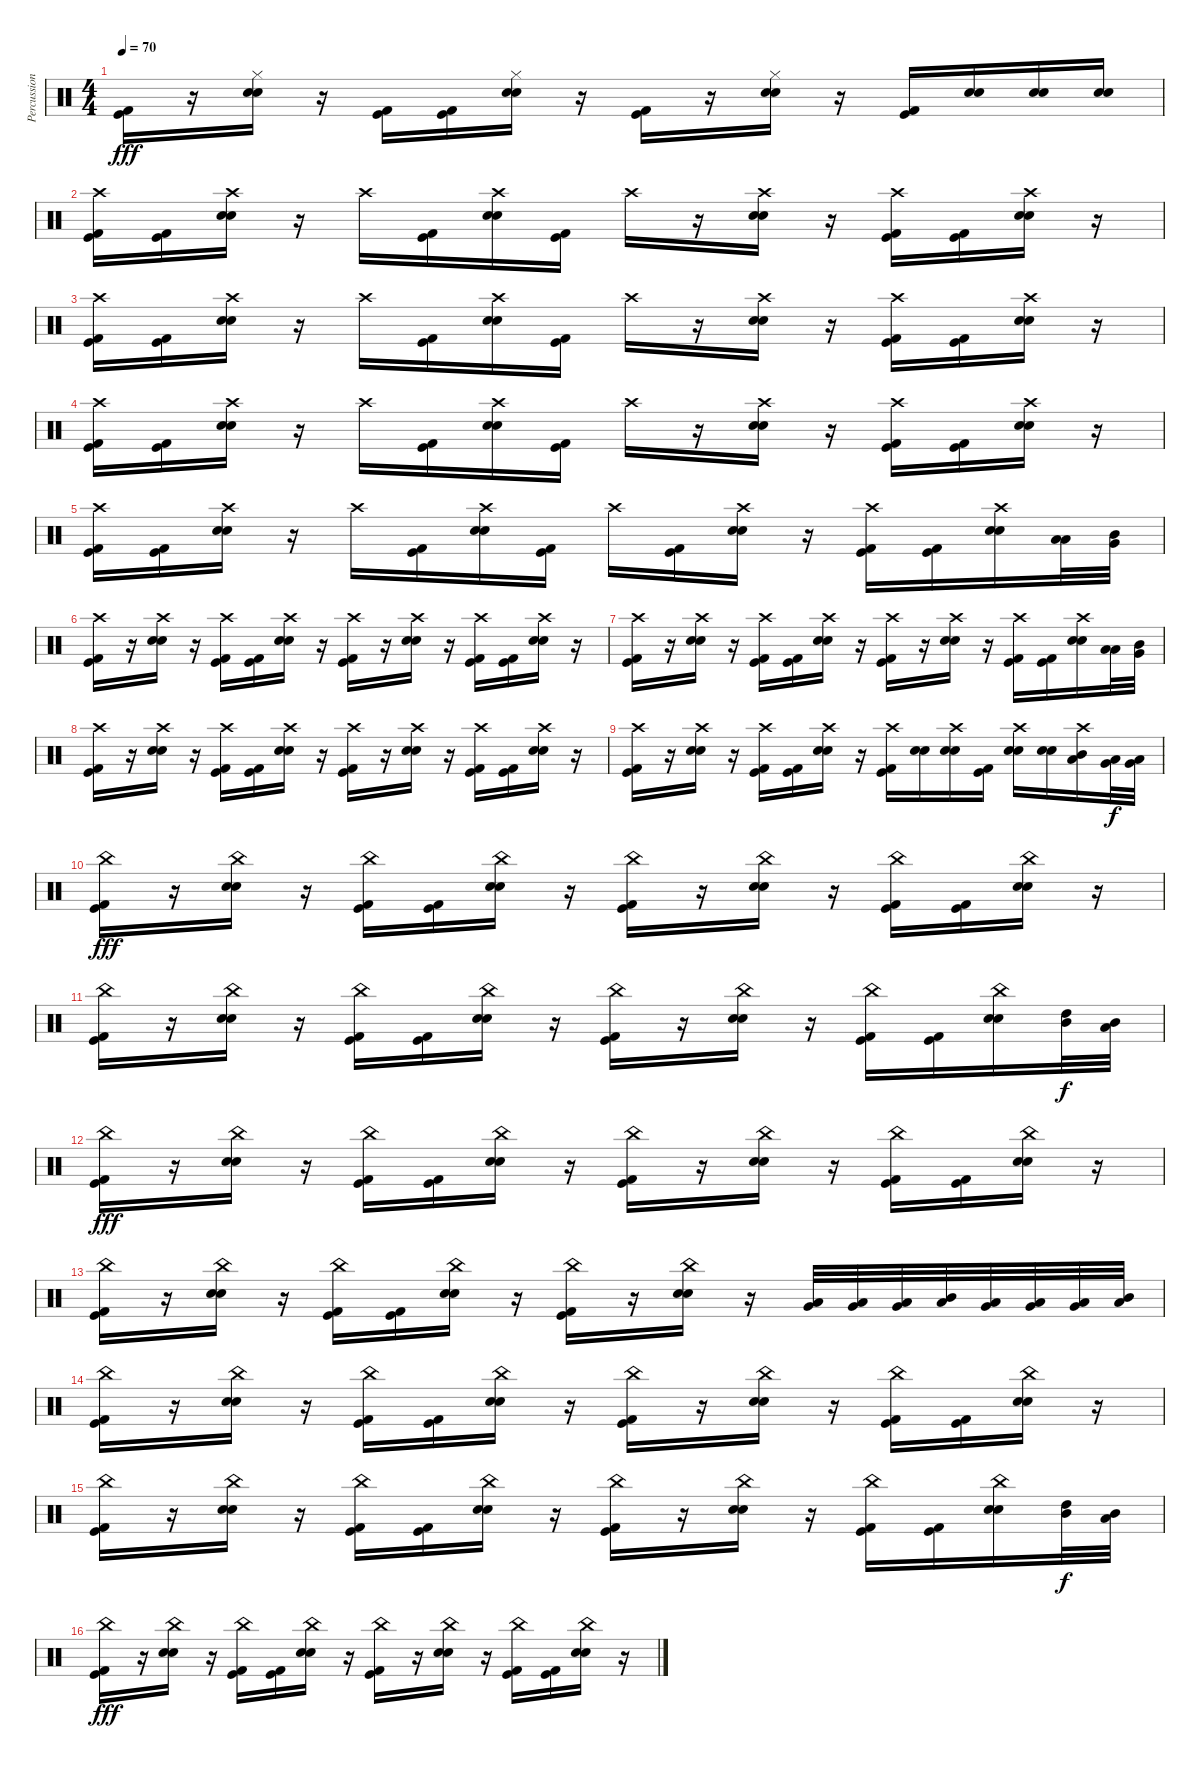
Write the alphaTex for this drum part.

\track ("Percussion" "Percussion") {instrument percussion}
\staff {score}
\articulation defaults
\ts (4 4)
\tempo 70
\clef neutral
\ks c
("Kick (hit)" "Kick (hit) 2").16{dy fff} r.16 ("Hi-Hat (closed)" "Snare (hit) 2" "Electric Snare (hit)").16 r.16 ("Kick (hit)" "Kick (hit) 2").16 ("Kick (hit)" "Kick (hit) 2").16 ("Hi-Hat (closed)" "Snare (hit) 2" "Electric Snare (hit)").16 r.16 ("Kick (hit)" "Kick (hit) 2").16 r.16 ("Hi-Hat (closed)" "Snare (hit) 2" "Electric Snare (hit)").16 r.16 ("Kick (hit)" "Kick (hit) 2").16 ("Snare (hit) 2" "Electric Snare (hit)").16 ("Snare (hit) 2" "Electric Snare (hit)").16 ("Snare (hit) 2" "Electric Snare (hit)").16 |
("Kick (hit)" "Crash high (hit)" "Kick (hit) 2").16 ("Kick (hit)" "Kick (hit) 2").16 ("Crash high (hit)" "Snare (hit) 2" "Electric Snare (hit)").16 r.16 "Crash high (hit)".16 ("Kick (hit)" "Kick (hit) 2").16 ("Crash high (hit)" "Snare (hit) 2" "Electric Snare (hit)").16 ("Kick (hit)" "Kick (hit) 2").16 "Crash high (hit)".16 r.16 ("Crash high (hit)" "Snare (hit) 2" "Electric Snare (hit)").16 r.16 ("Kick (hit)" "Crash high (hit)" "Kick (hit) 2").16 ("Kick (hit)" "Kick (hit) 2").16 ("Crash high (hit)" "Snare (hit) 2" "Electric Snare (hit)").16 r.16 |
("Kick (hit)" "Crash high (hit)" "Kick (hit) 2").16 ("Kick (hit)" "Kick (hit) 2").16 ("Crash high (hit)" "Snare (hit) 2" "Electric Snare (hit)").16 r.16 "Crash high (hit)".16 ("Kick (hit)" "Kick (hit) 2").16 ("Crash high (hit)" "Snare (hit) 2" "Electric Snare (hit)").16 ("Kick (hit)" "Kick (hit) 2").16 "Crash high (hit)".16 r.16 ("Crash high (hit)" "Snare (hit) 2" "Electric Snare (hit)").16 r.16 ("Kick (hit)" "Crash high (hit)" "Kick (hit) 2").16 ("Kick (hit)" "Kick (hit) 2").16 ("Crash high (hit)" "Snare (hit) 2" "Electric Snare (hit)").16 r.16 |
("Kick (hit)" "Crash high (hit)" "Kick (hit) 2").16 ("Kick (hit)" "Kick (hit) 2").16 ("Crash high (hit)" "Snare (hit) 2" "Electric Snare (hit)").16 r.16 "Crash high (hit)".16 ("Kick (hit)" "Kick (hit) 2").16 ("Crash high (hit)" "Snare (hit) 2" "Electric Snare (hit)").16 ("Kick (hit)" "Kick (hit) 2").16 "Crash high (hit)".16 r.16 ("Crash high (hit)" "Snare (hit) 2" "Electric Snare (hit)").16 r.16 ("Kick (hit)" "Crash high (hit)" "Kick (hit) 2").16 ("Kick (hit)" "Kick (hit) 2").16 ("Crash high (hit)" "Snare (hit) 2" "Electric Snare (hit)").16 r.16 |
("Kick (hit)" "Crash high (hit)" "Kick (hit) 2").16 ("Kick (hit)" "Kick (hit) 2").16 ("Crash high (hit)" "Snare (hit) 2" "Electric Snare (hit)").16 r.16 "Crash high (hit)".16 ("Kick (hit)" "Kick (hit) 2").16 ("Crash high (hit)" "Snare (hit) 2" "Electric Snare (hit)").16 ("Kick (hit)" "Kick (hit) 2").16 "Crash high (hit)".16 ("Kick (hit)" "Kick (hit) 2").16 ("Crash high (hit)" "Snare (hit) 2" "Electric Snare (hit)").16 r.16 ("Kick (hit)" "Crash high (hit)" "Kick (hit) 2").16 ("Kick (hit)" "Kick (hit) 2").16 ("Crash high (hit)" "Snare (hit) 2" "Electric Snare (hit)").16 ("Low Tom (hit)" "Low Tom (hit)").32 ("Mid Tom (hit)" "Very Low Tom (hit)").32 |
("Kick (hit)" "Crash high (hit)" "Kick (hit) 2").16 r.16 ("Crash high (hit)" "Snare (hit) 2" "Electric Snare (hit)").16 r.16 ("Kick (hit)" "Crash high (hit)" "Kick (hit) 2").16 ("Kick (hit)" "Kick (hit) 2").16 ("Crash high (hit)" "Snare (hit) 2" "Electric Snare (hit)").16 r.16 ("Kick (hit)" "Crash high (hit)" "Kick (hit) 2").16 r.16 ("Crash high (hit)" "Snare (hit) 2" "Electric Snare (hit)").16 r.16 ("Kick (hit)" "Crash high (hit)" "Kick (hit) 2").16 ("Kick (hit)" "Kick (hit) 2").16 ("Crash high (hit)" "Snare (hit) 2" "Electric Snare (hit)").16 r.16 |
("Kick (hit)" "Crash high (hit)" "Kick (hit) 2").16 r.16 ("Crash high (hit)" "Snare (hit) 2" "Electric Snare (hit)").16 r.16 ("Kick (hit)" "Crash high (hit)" "Kick (hit) 2").16 ("Kick (hit)" "Kick (hit) 2").16 ("Crash high (hit)" "Snare (hit) 2" "Electric Snare (hit)").16 r.16 ("Kick (hit)" "Crash high (hit)" "Kick (hit) 2").16 r.16 ("Crash high (hit)" "Snare (hit) 2" "Electric Snare (hit)").16 r.16 ("Kick (hit)" "Crash high (hit)" "Kick (hit) 2").16 ("Kick (hit)" "Kick (hit) 2").16 ("Crash high (hit)" "Snare (hit) 2" "Electric Snare (hit)").16 ("Low Tom (hit)" "Low Tom (hit)").32 ("Mid Tom (hit)" "Very Low Tom (hit)").32 |
("Kick (hit)" "Crash high (hit)" "Kick (hit) 2").16 r.16 ("Crash high (hit)" "Snare (hit) 2" "Electric Snare (hit)").16 r.16 ("Kick (hit)" "Crash high (hit)" "Kick (hit) 2").16 ("Kick (hit)" "Kick (hit) 2").16 ("Crash high (hit)" "Snare (hit) 2" "Electric Snare (hit)").16 r.16 ("Kick (hit)" "Crash high (hit)" "Kick (hit) 2").16 r.16 ("Crash high (hit)" "Snare (hit) 2" "Electric Snare (hit)").16 r.16 ("Kick (hit)" "Crash high (hit)" "Kick (hit) 2").16 ("Kick (hit)" "Kick (hit) 2").16 ("Crash high (hit)" "Snare (hit) 2" "Electric Snare (hit)").16 r.16 |
("Kick (hit)" "Crash high (hit)" "Kick (hit) 2").16 r.16 ("Crash high (hit)" "Snare (hit) 2" "Electric Snare (hit)").16 r.16 ("Kick (hit)" "Crash high (hit)" "Kick (hit) 2").16 ("Kick (hit)" "Kick (hit) 2").16 ("Crash high (hit)" "Snare (hit) 2" "Electric Snare (hit)").16 r.16 ("Kick (hit)" "Crash high (hit)" "Kick (hit) 2").16 ("Snare (hit) 2" "Electric Snare (hit)").16 ("Crash high (hit)" "Snare (hit) 2" "Electric Snare (hit)").16 ("Kick (hit)" "Kick (hit) 2").16 ("Crash high (hit)" "Snare (hit) 2" "Electric Snare (hit)").16 ("Snare (hit) 2" "Electric Snare (hit)").16 ("Crash high (hit)" "Mid Tom (hit)" "Low Tom (hit)").16 ("Low Tom (hit)" "Very Low Tom (hit)").32{dy f} ("Very Low Tom (hit)" "Low Floor Tom (hit)").32 |
("Kick (hit)" "China (hit)" "Kick (hit) 2").16{dy fff} r.16 ("China (hit)" "Snare (hit) 2" "Electric Snare (hit)").16 r.16 ("Kick (hit)" "China (hit)" "Kick (hit) 2").16 ("Kick (hit)" "Kick (hit) 2").16 ("China (hit)" "Snare (hit) 2" "Electric Snare (hit)").16 r.16 ("Kick (hit)" "China (hit)" "Kick (hit) 2").16 r.16 ("China (hit)" "Snare (hit) 2" "Electric Snare (hit)").16 r.16 ("Kick (hit)" "China (hit)" "Kick (hit) 2").16 ("Kick (hit)" "Kick (hit) 2").16 ("China (hit)" "Snare (hit) 2" "Electric Snare (hit)").16 r.16 |
("Kick (hit)" "China (hit)" "Kick (hit) 2").16 r.16 ("China (hit)" "Snare (hit) 2" "Electric Snare (hit)").16 r.16 ("Kick (hit)" "China (hit)" "Kick (hit) 2").16 ("Kick (hit)" "Kick (hit) 2").16 ("China (hit)" "Snare (hit) 2" "Electric Snare (hit)").16 r.16 ("Kick (hit)" "China (hit)" "Kick (hit) 2").16 r.16 ("China (hit)" "Snare (hit) 2" "Electric Snare (hit)").16 r.16 ("Kick (hit)" "China (hit)" "Kick (hit) 2").16 ("Kick (hit)" "Kick (hit) 2").16 ("China (hit)" "Snare (hit) 2" "Electric Snare (hit)").16 ("High Tom (hit)" "Mid Tom (hit)").32{dy f} ("Mid Tom (hit)" "Low Tom (hit)").32 |
("Kick (hit)" "China (hit)" "Kick (hit) 2").16{dy fff} r.16 ("China (hit)" "Snare (hit) 2" "Electric Snare (hit)").16 r.16 ("Kick (hit)" "China (hit)" "Kick (hit) 2").16 ("Kick (hit)" "Kick (hit) 2").16 ("China (hit)" "Snare (hit) 2" "Electric Snare (hit)").16 r.16 ("Kick (hit)" "China (hit)" "Kick (hit) 2").16 r.16 ("China (hit)" "Snare (hit) 2" "Electric Snare (hit)").16 r.16 ("Kick (hit)" "China (hit)" "Kick (hit) 2").16 ("Kick (hit)" "Kick (hit) 2").16 ("China (hit)" "Snare (hit) 2" "Electric Snare (hit)").16 r.16 |
("Kick (hit)" "China (hit)" "Kick (hit) 2").16 r.16 ("China (hit)" "Snare (hit) 2" "Electric Snare (hit)").16 r.16 ("Kick (hit)" "China (hit)" "Kick (hit) 2").16 ("Kick (hit)" "Kick (hit) 2").16 ("China (hit)" "Snare (hit) 2" "Electric Snare (hit)").16 r.16 ("Kick (hit)" "China (hit)" "Kick (hit) 2").16 r.16 ("China (hit)" "Snare (hit) 2" "Electric Snare (hit)").16 r.16 ("Low Tom (hit)" "Very Low Tom (hit)").32 ("Very Low Tom (hit)" "Low Floor Tom (hit)").32 ("Low Tom (hit)" "Very Low Tom (hit)").32 ("Mid Tom (hit)" "Low Tom (hit)").32 ("Low Tom (hit)" "Very Low Tom (hit)").32 ("Very Low Tom (hit)" "Low Floor Tom (hit)").32 ("Low Tom (hit)" "Very Low Tom (hit)").32 ("Mid Tom (hit)" "Low Tom (hit)").32 |
("Kick (hit)" "China (hit)" "Kick (hit) 2").16 r.16 ("China (hit)" "Snare (hit) 2" "Electric Snare (hit)").16 r.16 ("Kick (hit)" "China (hit)" "Kick (hit) 2").16 ("Kick (hit)" "Kick (hit) 2").16 ("China (hit)" "Snare (hit) 2" "Electric Snare (hit)").16 r.16 ("Kick (hit)" "China (hit)" "Kick (hit) 2").16 r.16 ("China (hit)" "Snare (hit) 2" "Electric Snare (hit)").16 r.16 ("Kick (hit)" "China (hit)" "Kick (hit) 2").16 ("Kick (hit)" "Kick (hit) 2").16 ("China (hit)" "Snare (hit) 2" "Electric Snare (hit)").16 r.16 |
("Kick (hit)" "China (hit)" "Kick (hit) 2").16 r.16 ("China (hit)" "Snare (hit) 2" "Electric Snare (hit)").16 r.16 ("Kick (hit)" "China (hit)" "Kick (hit) 2").16 ("Kick (hit)" "Kick (hit) 2").16 ("China (hit)" "Snare (hit) 2" "Electric Snare (hit)").16 r.16 ("Kick (hit)" "China (hit)" "Kick (hit) 2").16 r.16 ("China (hit)" "Snare (hit) 2" "Electric Snare (hit)").16 r.16 ("Kick (hit)" "China (hit)" "Kick (hit) 2").16 ("Kick (hit)" "Kick (hit) 2").16 ("China (hit)" "Snare (hit) 2" "Electric Snare (hit)").16 ("High Tom (hit)" "Mid Tom (hit)").32{dy f} ("Mid Tom (hit)" "Low Tom (hit)").32 |
("Kick (hit)" "China (hit)" "Kick (hit) 2").16{dy fff} r.16 ("China (hit)" "Snare (hit) 2" "Electric Snare (hit)").16 r.16 ("Kick (hit)" "China (hit)" "Kick (hit) 2").16 ("Kick (hit)" "Kick (hit) 2").16 ("China (hit)" "Snare (hit) 2" "Electric Snare (hit)").16 r.16 ("Kick (hit)" "China (hit)" "Kick (hit) 2").16 r.16 ("China (hit)" "Snare (hit) 2" "Electric Snare (hit)").16 r.16 ("Kick (hit)" "China (hit)" "Kick (hit) 2").16 ("Kick (hit)" "Kick (hit) 2").16 ("China (hit)" "Snare (hit) 2" "Electric Snare (hit)").16 r.16
